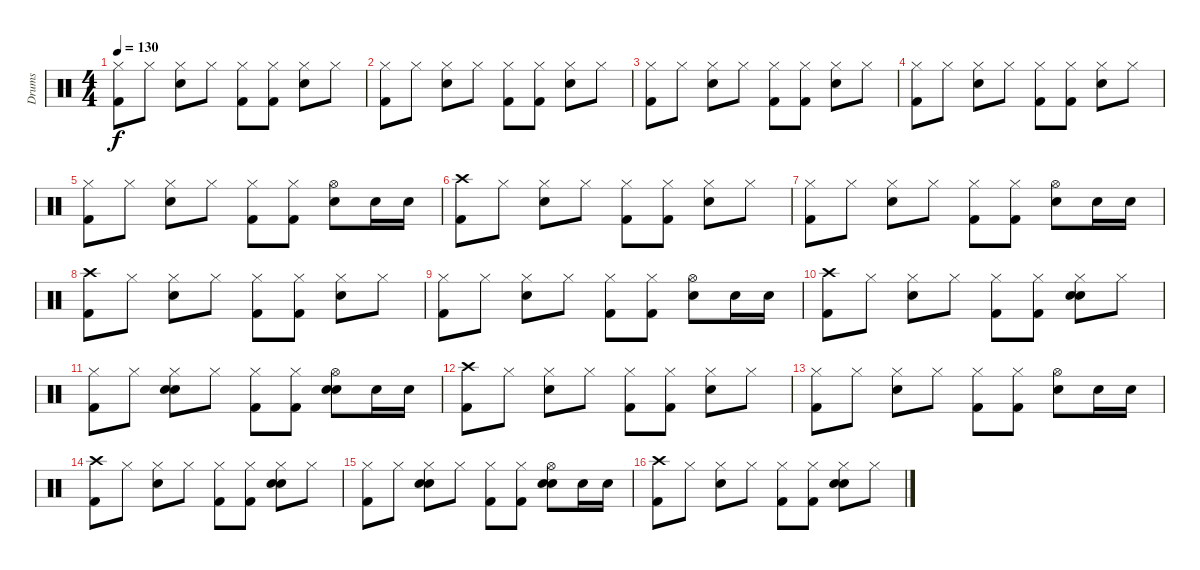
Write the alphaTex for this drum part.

\track ("Drums" "Drums") {instrument percussion}
\staff {score}
\articulation defaults
\ts (4 4)
\tempo 130
\clef neutral
\ks c
("Hi-Hat (closed)" "Kick (hit) 2").8{dy f} "Hi-Hat (closed)".8 ("Hi-Hat (closed)" "Electric Snare (hit)").8 "Hi-Hat (closed)".8 ("Hi-Hat (closed)" "Kick (hit) 2").8 ("Hi-Hat (closed)" "Kick (hit) 2").8 ("Hi-Hat (closed)" "Electric Snare (hit)").8 "Hi-Hat (closed)".8 |
("Hi-Hat (closed)" "Kick (hit) 2").8 "Hi-Hat (closed)".8 ("Hi-Hat (closed)" "Electric Snare (hit)").8 "Hi-Hat (closed)".8 ("Hi-Hat (closed)" "Kick (hit) 2").8 ("Hi-Hat (closed)" "Kick (hit) 2").8 ("Hi-Hat (closed)" "Electric Snare (hit)").8 "Hi-Hat (closed)".8 |
("Hi-Hat (closed)" "Kick (hit) 2").8 "Hi-Hat (closed)".8 ("Hi-Hat (closed)" "Electric Snare (hit)").8 "Hi-Hat (closed)".8 ("Hi-Hat (closed)" "Kick (hit) 2").8 ("Hi-Hat (closed)" "Kick (hit) 2").8 ("Hi-Hat (closed)" "Electric Snare (hit)").8 "Hi-Hat (closed)".8 |
("Hi-Hat (closed)" "Kick (hit) 2").8 "Hi-Hat (closed)".8 ("Hi-Hat (closed)" "Electric Snare (hit)").8 "Hi-Hat (closed)".8 ("Hi-Hat (closed)" "Kick (hit) 2").8 ("Hi-Hat (closed)" "Kick (hit) 2").8 ("Hi-Hat (closed)" "Electric Snare (hit)").8 "Hi-Hat (closed)".8 |
("Hi-Hat (closed)" "Kick (hit) 2").8 "Hi-Hat (closed)".8 ("Hi-Hat (closed)" "Electric Snare (hit)").8 "Hi-Hat (closed)".8 ("Hi-Hat (closed)" "Kick (hit) 2").8 ("Hi-Hat (closed)" "Kick (hit) 2").8 ("Hi-Hat (open)" "Electric Snare (hit)").8 "Electric Snare (hit)".16 "Electric Snare (hit)".16 |
("Crash high (hit)" "Kick (hit) 2").8 "Hi-Hat (closed)".8 ("Hi-Hat (closed)" "Electric Snare (hit)").8 "Hi-Hat (closed)".8 ("Hi-Hat (closed)" "Kick (hit) 2").8 ("Hi-Hat (closed)" "Kick (hit) 2").8 ("Hi-Hat (closed)" "Electric Snare (hit)").8 "Hi-Hat (closed)".8 |
("Hi-Hat (closed)" "Kick (hit) 2").8 "Hi-Hat (closed)".8 ("Hi-Hat (closed)" "Electric Snare (hit)").8 "Hi-Hat (closed)".8 ("Hi-Hat (closed)" "Kick (hit) 2").8 ("Hi-Hat (closed)" "Kick (hit) 2").8 ("Hi-Hat (open)" "Electric Snare (hit)").8 "Electric Snare (hit)".16 "Electric Snare (hit)".16 |
("Crash high (hit)" "Kick (hit) 2").8 "Hi-Hat (closed)".8 ("Hi-Hat (closed)" "Electric Snare (hit)").8 "Hi-Hat (closed)".8 ("Hi-Hat (closed)" "Kick (hit) 2").8 ("Hi-Hat (closed)" "Kick (hit) 2").8 ("Hi-Hat (closed)" "Electric Snare (hit)").8 "Hi-Hat (closed)".8 |
("Hi-Hat (closed)" "Kick (hit) 2").8 "Hi-Hat (closed)".8 ("Hi-Hat (closed)" "Electric Snare (hit)").8 "Hi-Hat (closed)".8 ("Hi-Hat (closed)" "Kick (hit) 2").8 ("Hi-Hat (closed)" "Kick (hit) 2").8 ("Hi-Hat (open)" "Electric Snare (hit)").8 "Electric Snare (hit)".16 "Electric Snare (hit)".16 |
("Crash high (hit)" "Kick (hit) 2").8 "Hi-Hat (closed)".8 ("Hi-Hat (closed)" "Electric Snare (hit)").8 "Hi-Hat (closed)".8 ("Hi-Hat (closed)" "Kick (hit) 2").8 ("Hi-Hat (closed)" "Kick (hit) 2").8 ("Hand Clap (hit)" "Hi-Hat (closed)" "Electric Snare (hit)").8 "Hi-Hat (closed)".8 |
("Hi-Hat (closed)" "Kick (hit) 2").8 "Hi-Hat (closed)".8 ("Hand Clap (hit)" "Hi-Hat (closed)" "Electric Snare (hit)").8 "Hi-Hat (closed)".8 ("Hi-Hat (closed)" "Kick (hit) 2").8 ("Hi-Hat (closed)" "Kick (hit) 2").8 ("Hand Clap (hit)" "Hi-Hat (open)" "Electric Snare (hit)").8 "Electric Snare (hit)".16 "Electric Snare (hit)".16 |
("Crash high (hit)" "Kick (hit) 2").8 "Hi-Hat (closed)".8 ("Hi-Hat (closed)" "Electric Snare (hit)").8 "Hi-Hat (closed)".8 ("Hi-Hat (closed)" "Kick (hit) 2").8 ("Hi-Hat (closed)" "Kick (hit) 2").8 ("Hi-Hat (closed)" "Electric Snare (hit)").8 "Hi-Hat (closed)".8 |
("Hi-Hat (closed)" "Kick (hit) 2").8 "Hi-Hat (closed)".8 ("Hi-Hat (closed)" "Electric Snare (hit)").8 "Hi-Hat (closed)".8 ("Hi-Hat (closed)" "Kick (hit) 2").8 ("Hi-Hat (closed)" "Kick (hit) 2").8 ("Hi-Hat (open)" "Electric Snare (hit)").8 "Electric Snare (hit)".16 "Electric Snare (hit)".16 |
("Crash high (hit)" "Kick (hit) 2").8 "Hi-Hat (closed)".8 ("Hi-Hat (closed)" "Electric Snare (hit)").8 "Hi-Hat (closed)".8 ("Hi-Hat (closed)" "Kick (hit) 2").8 ("Hi-Hat (closed)" "Kick (hit) 2").8 ("Hand Clap (hit)" "Hi-Hat (closed)" "Electric Snare (hit)").8 "Hi-Hat (closed)".8 |
("Hi-Hat (closed)" "Kick (hit) 2").8 "Hi-Hat (closed)".8 ("Hand Clap (hit)" "Hi-Hat (closed)" "Electric Snare (hit)").8 "Hi-Hat (closed)".8 ("Hi-Hat (closed)" "Kick (hit) 2").8 ("Hi-Hat (closed)" "Kick (hit) 2").8 ("Hand Clap (hit)" "Hi-Hat (open)" "Electric Snare (hit)").8 "Electric Snare (hit)".16 "Electric Snare (hit)".16 |
("Crash high (hit)" "Kick (hit) 2").8 "Hi-Hat (closed)".8 ("Hi-Hat (closed)" "Electric Snare (hit)").8 "Hi-Hat (closed)".8 ("Hi-Hat (closed)" "Kick (hit) 2").8 ("Hi-Hat (closed)" "Kick (hit) 2").8 ("Hand Clap (hit)" "Hi-Hat (closed)" "Electric Snare (hit)").8 "Hi-Hat (closed)".8
